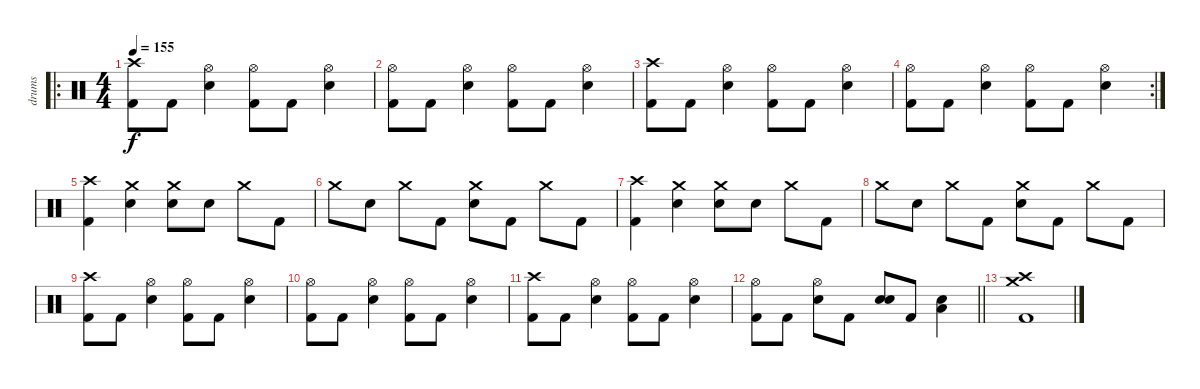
\track ("drums" "drums") {instrument percussion}
\staff
\articulation defaults
\ro
\ts (4 4)
\tempo 155
\clef neutral
\ks c
("Crash high (hit)" "Kick (hit) 2").8{dy f} "Kick (hit) 2".8 ("Hi-Hat (open)" "Electric Snare (hit)").4 ("Hi-Hat (open)" "Kick (hit) 2").8 "Kick (hit) 2".8 ("Hi-Hat (open)" "Electric Snare (hit)").4 |
("Hi-Hat (open)" "Kick (hit) 2").8 "Kick (hit) 2".8 ("Hi-Hat (open)" "Electric Snare (hit)").4 ("Hi-Hat (open)" "Kick (hit) 2").8 "Kick (hit) 2".8 ("Hi-Hat (open)" "Electric Snare (hit)").4 |
("Crash high (hit)" "Kick (hit) 2").8 "Kick (hit) 2".8 ("Hi-Hat (open)" "Electric Snare (hit)").4 ("Hi-Hat (open)" "Kick (hit) 2").8 "Kick (hit) 2".8 ("Hi-Hat (open)" "Electric Snare (hit)").4 |
\rc 2
("Hi-Hat (open)" "Kick (hit) 2").8 "Kick (hit) 2".8 ("Hi-Hat (open)" "Electric Snare (hit)").4 ("Hi-Hat (open)" "Kick (hit) 2").8 "Kick (hit) 2".8 ("Hi-Hat (open)" "Electric Snare (hit)").4 |
("Crash high (hit)" "Kick (hit) 2").4 ("Crash medium (hit)" "Electric Snare (hit)").4 ("Crash medium (hit)" "Electric Snare (hit)").8 "Electric Snare (hit)".8 "Crash medium (hit)".8 "Kick (hit) 2".8 |
"Crash medium (hit)".8 "Electric Snare (hit)".8 "Crash medium (hit)".8 "Kick (hit) 2".8 ("Crash medium (hit)" "Electric Snare (hit)").8 "Kick (hit) 2".8 "Crash medium (hit)".8 "Kick (hit) 2".8 |
("Crash high (hit)" "Kick (hit) 2").4 ("Crash medium (hit)" "Electric Snare (hit)").4 ("Crash medium (hit)" "Electric Snare (hit)").8 "Electric Snare (hit)".8 "Crash medium (hit)".8 "Kick (hit) 2".8 |
"Crash medium (hit)".8 "Electric Snare (hit)".8 "Crash medium (hit)".8 "Kick (hit) 2".8 ("Crash medium (hit)" "Electric Snare (hit)").8 "Kick (hit) 2".8 "Crash medium (hit)".8 "Kick (hit) 2".8 |
("Crash high (hit)" "Kick (hit) 2").8 "Kick (hit) 2".8 ("Hi-Hat (open)" "Electric Snare (hit)").4 ("Hi-Hat (open)" "Kick (hit) 2").8 "Kick (hit) 2".8 ("Hi-Hat (open)" "Electric Snare (hit)").4 |
("Hi-Hat (open)" "Kick (hit) 2").8 "Kick (hit) 2".8 ("Hi-Hat (open)" "Electric Snare (hit)").4 ("Hi-Hat (open)" "Kick (hit) 2").8 "Kick (hit) 2".8 ("Hi-Hat (open)" "Electric Snare (hit)").4 |
("Crash high (hit)" "Kick (hit) 2").8 "Kick (hit) 2".8 ("Hi-Hat (open)" "Electric Snare (hit)").4 ("Hi-Hat (open)" "Kick (hit) 2").8 "Kick (hit) 2".8 ("Hi-Hat (open)" "Electric Snare (hit)").4 |
\barLineRight lightlight
("Hi-Hat (open)" "Kick (hit) 2").8 "Kick (hit) 2".8 ("Hi-Hat (open)" "Electric Snare (hit)").8 "Kick (hit) 2".8 ("Electric Snare (hit)" "Electric Snare (hit)").8{bd 480} "Kick (hit) 2".8 ("Low Floor Tom (hit)" "Electric Snare (hit)").4 |
("Crash high (hit)" "Kick (hit) 2" "Crash medium (hit)").1
